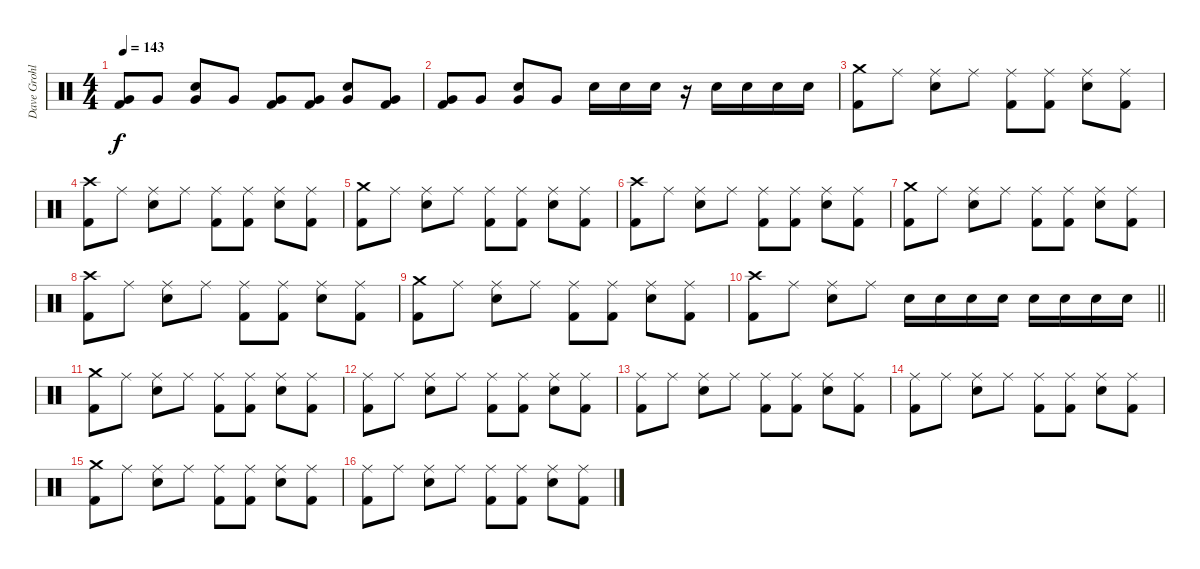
\track ("Dave Grohl" "Dave Grohl") {instrument percussion}
\staff {score}
\articulation defaults
\ts (4 4)
\tempo 143
\clef neutral
\ks c
("Very Low Tom (hit)" "Kick (hit) 2").8{dy f} "Very Low Tom (hit)".8 ("Very Low Tom (hit)" "Snare (hit) 2").8 "Very Low Tom (hit)".8 ("Very Low Tom (hit)" "Kick (hit) 2").8 ("Very Low Tom (hit)" "Kick (hit) 2").8 ("Very Low Tom (hit)" "Snare (hit) 2").8 ("Very Low Tom (hit)" "Kick (hit) 2").8 |
("Very Low Tom (hit)" "Kick (hit) 2").8 "Very Low Tom (hit)".8 ("Very Low Tom (hit)" "Snare (hit) 2").8 "Very Low Tom (hit)".8 "Snare (hit) 2".16 "Snare (hit) 2".16 "Snare (hit) 2".16 r.16 "Snare (hit) 2".16 "Snare (hit) 2".16 "Snare (hit) 2".16 "Snare (hit) 2".16 |
("Crash medium (hit)" "Kick (hit) 2").8 "Ride (middle)".8 ("Ride (middle)" "Snare (hit) 2").8 "Ride (middle)".8 ("Ride (middle)" "Kick (hit) 2").8 ("Ride (middle)" "Kick (hit) 2").8 ("Ride (middle)" "Snare (hit) 2").8 ("Ride (middle)" "Kick (hit) 2").8 |
("Crash high (hit)" "Kick (hit) 2").8 "Ride (middle)".8 ("Ride (middle)" "Snare (hit) 2").8 "Ride (middle)".8 ("Ride (middle)" "Kick (hit) 2").8 ("Ride (middle)" "Kick (hit) 2").8 ("Ride (middle)" "Snare (hit) 2").8 ("Ride (middle)" "Kick (hit) 2").8 |
("Crash medium (hit)" "Kick (hit) 2").8 "Ride (middle)".8 ("Ride (middle)" "Snare (hit) 2").8 "Ride (middle)".8 ("Ride (middle)" "Kick (hit) 2").8 ("Ride (middle)" "Kick (hit) 2").8 ("Ride (middle)" "Snare (hit) 2").8 ("Ride (middle)" "Kick (hit) 2").8 |
("Crash high (hit)" "Kick (hit) 2").8 "Ride (middle)".8 ("Ride (middle)" "Snare (hit) 2").8 "Ride (middle)".8 ("Ride (middle)" "Kick (hit) 2").8 ("Ride (middle)" "Kick (hit) 2").8 ("Ride (middle)" "Snare (hit) 2").8 ("Ride (middle)" "Kick (hit) 2").8 |
("Crash medium (hit)" "Kick (hit) 2").8 "Ride (middle)".8 ("Ride (middle)" "Snare (hit) 2").8 "Ride (middle)".8 ("Ride (middle)" "Kick (hit) 2").8 ("Ride (middle)" "Kick (hit) 2").8 ("Ride (middle)" "Snare (hit) 2").8 ("Ride (middle)" "Kick (hit) 2").8 |
("Crash high (hit)" "Kick (hit) 2").8 "Ride (middle)".8 ("Ride (middle)" "Snare (hit) 2").8 "Ride (middle)".8 ("Ride (middle)" "Kick (hit) 2").8 ("Ride (middle)" "Kick (hit) 2").8 ("Ride (middle)" "Snare (hit) 2").8 ("Ride (middle)" "Kick (hit) 2").8 |
("Crash medium (hit)" "Kick (hit) 2").8 "Ride (middle)".8 ("Ride (middle)" "Snare (hit) 2").8 "Ride (middle)".8 ("Ride (middle)" "Kick (hit) 2").8 ("Ride (middle)" "Kick (hit) 2").8 ("Ride (middle)" "Snare (hit) 2").8 ("Ride (middle)" "Kick (hit) 2").8 |
\barLineRight lightlight
("Crash high (hit)" "Kick (hit) 2").8 "Ride (middle)".8 ("Ride (middle)" "Snare (hit) 2").8 "Ride (middle)".8 "Snare (hit) 2".16 "Snare (hit) 2".16 "Snare (hit) 2".16 "Snare (hit) 2".16 "Snare (hit) 2".16 "Snare (hit) 2".16 "Snare (hit) 2".16 "Snare (hit) 2".16 |
("Crash medium (hit)" "Kick (hit) 2").8 "Ride (middle)".8 ("Ride (middle)" "Snare (hit) 2").8 "Ride (middle)".8 ("Ride (middle)" "Kick (hit) 2").8 ("Ride (middle)" "Kick (hit) 2").8 ("Ride (middle)" "Snare (hit) 2").8 ("Ride (middle)" "Kick (hit) 2").8 |
("Ride (middle)" "Kick (hit) 2").8 "Ride (middle)".8 ("Ride (middle)" "Snare (hit) 2").8 "Ride (middle)".8 ("Ride (middle)" "Kick (hit) 2").8 ("Ride (middle)" "Kick (hit) 2").8 ("Ride (middle)" "Snare (hit) 2").8 ("Ride (middle)" "Kick (hit) 2").8 |
("Ride (middle)" "Kick (hit) 2").8 "Ride (middle)".8 ("Ride (middle)" "Snare (hit) 2").8 "Ride (middle)".8 ("Ride (middle)" "Kick (hit) 2").8 ("Ride (middle)" "Kick (hit) 2").8 ("Ride (middle)" "Snare (hit) 2").8 ("Ride (middle)" "Kick (hit) 2").8 |
("Ride (middle)" "Kick (hit) 2").8 "Ride (middle)".8 ("Ride (middle)" "Snare (hit) 2").8 "Ride (middle)".8 ("Ride (middle)" "Kick (hit) 2").8 ("Ride (middle)" "Kick (hit) 2").8 ("Ride (middle)" "Snare (hit) 2").8 ("Ride (middle)" "Kick (hit) 2").8 |
("Crash medium (hit)" "Kick (hit) 2").8 "Ride (middle)".8 ("Ride (middle)" "Snare (hit) 2").8 "Ride (middle)".8 ("Ride (middle)" "Kick (hit) 2").8 ("Ride (middle)" "Kick (hit) 2").8 ("Ride (middle)" "Snare (hit) 2").8 ("Ride (middle)" "Kick (hit) 2").8 |
("Ride (middle)" "Kick (hit) 2").8 "Ride (middle)".8 ("Ride (middle)" "Snare (hit) 2").8 "Ride (middle)".8 ("Ride (middle)" "Kick (hit) 2").8 ("Ride (middle)" "Kick (hit) 2").8 ("Ride (middle)" "Snare (hit) 2").8 ("Ride (middle)" "Kick (hit) 2").8
